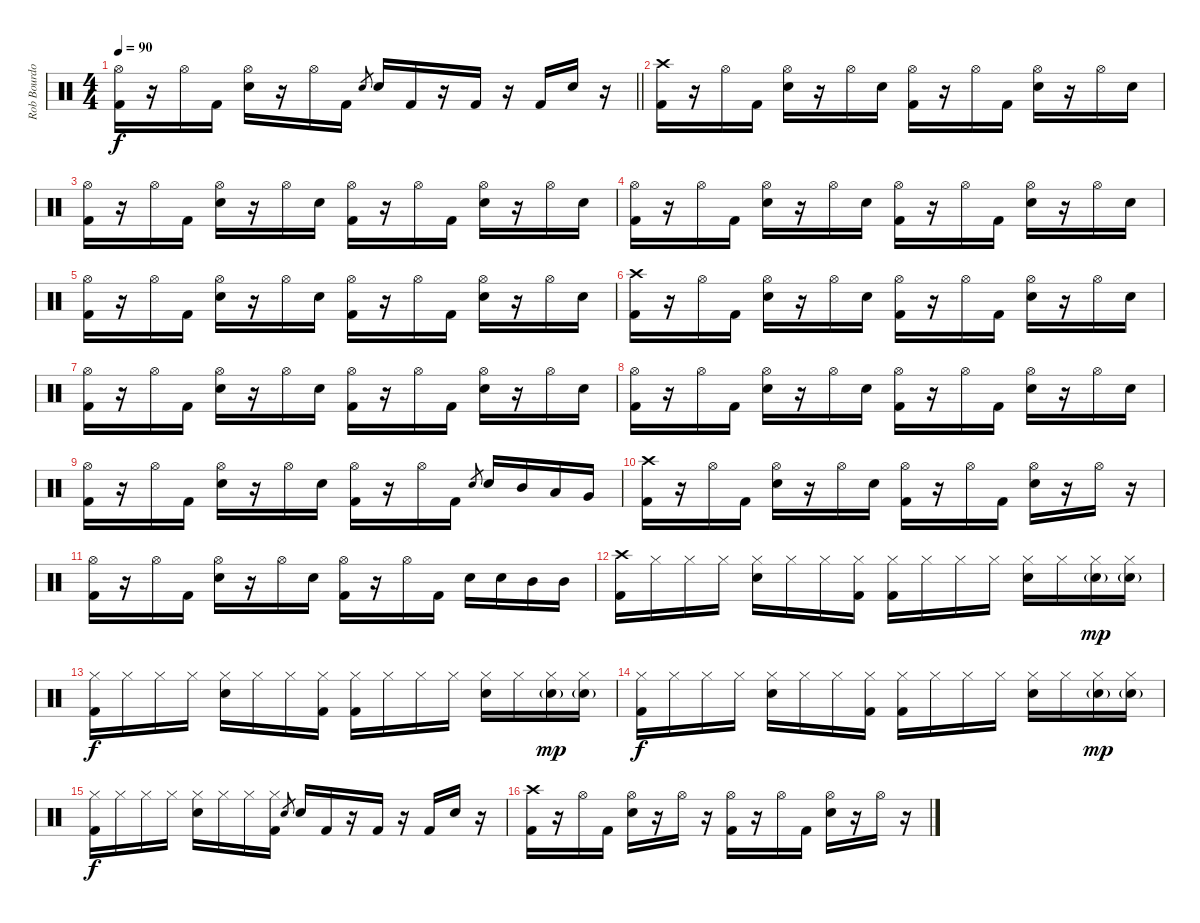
\track ("Rob Bourdon - Drums" "Rob Bourdo") {instrument percussion}
\staff {score}
\articulation defaults
\ts (4 4)
\tempo 90
\clef neutral
\barLineRight lightlight
\ks c
("Hi-Hat (open)" "Kick (hit) 2").16{dy f} r.16 "Hi-Hat (open)".16 "Kick (hit) 2".16 ("Hi-Hat (open)" "Electric Snare (hit)").16 r.16 "Hi-Hat (open)".16 "Kick (hit) 2".16 "Electric Snare (hit)".8{gr} "Electric Snare (hit)".16 "Kick (hit) 2".16 r.16 "Kick (hit) 2".16 r.16 "Kick (hit) 2".16 "Electric Snare (hit)".16 r.16 |
("Crash high (hit)" "Kick (hit) 2").16 r.16 "Hi-Hat (open)".16 "Kick (hit) 2".16 ("Hi-Hat (open)" "Electric Snare (hit)").16 r.16 "Hi-Hat (open)".16 "Electric Snare (hit)".16 ("Hi-Hat (open)" "Kick (hit) 2").16 r.16 "Hi-Hat (open)".16 "Kick (hit) 2".16 ("Hi-Hat (open)" "Electric Snare (hit)").16 r.16 "Hi-Hat (open)".16 "Electric Snare (hit)".16 |
("Hi-Hat (open)" "Kick (hit) 2").16 r.16 "Hi-Hat (open)".16 "Kick (hit) 2".16 ("Hi-Hat (open)" "Electric Snare (hit)").16 r.16 "Hi-Hat (open)".16 "Electric Snare (hit)".16 ("Hi-Hat (open)" "Kick (hit) 2").16 r.16 "Hi-Hat (open)".16 "Kick (hit) 2".16 ("Hi-Hat (open)" "Electric Snare (hit)").16 r.16 "Hi-Hat (open)".16 "Electric Snare (hit)".16 |
("Hi-Hat (open)" "Kick (hit) 2").16 r.16 "Hi-Hat (open)".16 "Kick (hit) 2".16 ("Hi-Hat (open)" "Electric Snare (hit)").16 r.16 "Hi-Hat (open)".16 "Electric Snare (hit)".16 ("Hi-Hat (open)" "Kick (hit) 2").16 r.16 "Hi-Hat (open)".16 "Kick (hit) 2".16 ("Hi-Hat (open)" "Electric Snare (hit)").16 r.16 "Hi-Hat (open)".16 "Electric Snare (hit)".16 |
("Hi-Hat (open)" "Kick (hit) 2").16 r.16 "Hi-Hat (open)".16 "Kick (hit) 2".16 ("Hi-Hat (open)" "Electric Snare (hit)").16 r.16 "Hi-Hat (open)".16 "Electric Snare (hit)".16 ("Hi-Hat (open)" "Kick (hit) 2").16 r.16 "Hi-Hat (open)".16 "Kick (hit) 2".16 ("Hi-Hat (open)" "Electric Snare (hit)").16 r.16 "Hi-Hat (open)".16 "Electric Snare (hit)".16 |
("Crash high (hit)" "Kick (hit) 2").16 r.16 "Hi-Hat (open)".16 "Kick (hit) 2".16 ("Hi-Hat (open)" "Electric Snare (hit)").16 r.16 "Hi-Hat (open)".16 "Electric Snare (hit)".16 ("Hi-Hat (open)" "Kick (hit) 2").16 r.16 "Hi-Hat (open)".16 "Kick (hit) 2".16 ("Hi-Hat (open)" "Electric Snare (hit)").16 r.16 "Hi-Hat (open)".16 "Electric Snare (hit)".16 |
("Hi-Hat (open)" "Kick (hit) 2").16 r.16 "Hi-Hat (open)".16 "Kick (hit) 2".16 ("Hi-Hat (open)" "Electric Snare (hit)").16 r.16 "Hi-Hat (open)".16 "Electric Snare (hit)".16 ("Hi-Hat (open)" "Kick (hit) 2").16 r.16 "Hi-Hat (open)".16 "Kick (hit) 2".16 ("Hi-Hat (open)" "Electric Snare (hit)").16 r.16 "Hi-Hat (open)".16 "Electric Snare (hit)".16 |
("Hi-Hat (open)" "Kick (hit) 2").16 r.16 "Hi-Hat (open)".16 "Kick (hit) 2".16 ("Hi-Hat (open)" "Electric Snare (hit)").16 r.16 "Hi-Hat (open)".16 "Electric Snare (hit)".16 ("Hi-Hat (open)" "Kick (hit) 2").16 r.16 "Hi-Hat (open)".16 "Kick (hit) 2".16 ("Hi-Hat (open)" "Electric Snare (hit)").16 r.16 "Hi-Hat (open)".16 "Electric Snare (hit)".16 |
("Hi-Hat (open)" "Kick (hit) 2").16 r.16 "Hi-Hat (open)".16 "Kick (hit) 2".16 ("Hi-Hat (open)" "Electric Snare (hit)").16 r.16 "Hi-Hat (open)".16 "Electric Snare (hit)".16 ("Hi-Hat (open)" "Kick (hit) 2").16 r.16 "Hi-Hat (open)".16 "Kick (hit) 2".16 "Electric Snare (hit)".8{gr} "Electric Snare (hit)".16 "Mid Tom (hit)".16 "Low Tom (hit)".16 "Very Low Tom (hit)".16 |
("Crash high (hit)" "Kick (hit) 2").16 r.16 "Hi-Hat (open)".16 "Kick (hit) 2".16 ("Hi-Hat (open)" "Electric Snare (hit)").16 r.16 "Hi-Hat (open)".16 "Electric Snare (hit)".16 ("Hi-Hat (open)" "Kick (hit) 2").16 r.16 "Hi-Hat (open)".16 "Kick (hit) 2".16 ("Hi-Hat (open)" "Electric Snare (hit)").16 r.16 "Hi-Hat (open)".16 r.16 |
("Hi-Hat (open)" "Kick (hit) 2").16 r.16 "Hi-Hat (open)".16 "Kick (hit) 2".16 ("Hi-Hat (open)" "Electric Snare (hit)").16 r.16 "Hi-Hat (open)".16 "Electric Snare (hit)".16 ("Hi-Hat (open)" "Kick (hit) 2").16 r.16 "Hi-Hat (open)".16 "Kick (hit) 2".16 "Electric Snare (hit)".16 "Electric Snare (hit)".16 "Mid Tom (hit)".16 "Mid Tom (hit)".16 |
("Crash high (hit)" "Kick (hit) 2").16 "Hi-Hat (closed)".16 "Hi-Hat (closed)".16 "Hi-Hat (closed)".16 ("Hi-Hat (closed)" "Hand Clap (hit)").16 "Hi-Hat (closed)".16 "Hi-Hat (closed)".16 ("Hi-Hat (closed)" "Kick (hit) 2").16 ("Hi-Hat (closed)" "Kick (hit) 2").16 "Hi-Hat (closed)".16 "Hi-Hat (closed)".16 "Hi-Hat (closed)".16 ("Hi-Hat (closed)" "Hand Clap (hit)").16 "Hi-Hat (closed)".16 ("Hi-Hat (closed)" "Hand Clap (hit)"{g}).16{dy mp} ("Hi-Hat (closed)" "Hand Clap (hit)"{g}).16 |
("Hi-Hat (closed)" "Kick (hit) 2").16{dy f} "Hi-Hat (closed)".16 "Hi-Hat (closed)".16 "Hi-Hat (closed)".16 ("Hi-Hat (closed)" "Hand Clap (hit)").16 "Hi-Hat (closed)".16 "Hi-Hat (closed)".16 ("Hi-Hat (closed)" "Kick (hit) 2").16 ("Hi-Hat (closed)" "Kick (hit) 2").16 "Hi-Hat (closed)".16 "Hi-Hat (closed)".16 "Hi-Hat (closed)".16 ("Hi-Hat (closed)" "Hand Clap (hit)").16 "Hi-Hat (closed)".16 ("Hi-Hat (closed)" "Hand Clap (hit)"{g}).16{dy mp} ("Hi-Hat (closed)" "Hand Clap (hit)"{g}).16 |
("Hi-Hat (closed)" "Kick (hit) 2").16{dy f} "Hi-Hat (closed)".16 "Hi-Hat (closed)".16 "Hi-Hat (closed)".16 ("Hi-Hat (closed)" "Hand Clap (hit)").16 "Hi-Hat (closed)".16 "Hi-Hat (closed)".16 ("Hi-Hat (closed)" "Kick (hit) 2").16 ("Hi-Hat (closed)" "Kick (hit) 2").16 "Hi-Hat (closed)".16 "Hi-Hat (closed)".16 "Hi-Hat (closed)".16 ("Hi-Hat (closed)" "Hand Clap (hit)").16 "Hi-Hat (closed)".16 ("Hi-Hat (closed)" "Hand Clap (hit)"{g}).16{dy mp} ("Hi-Hat (closed)" "Hand Clap (hit)"{g}).16 |
("Hi-Hat (closed)" "Kick (hit) 2").16{dy f} "Hi-Hat (closed)".16 "Hi-Hat (closed)".16 "Hi-Hat (closed)".16 ("Hi-Hat (closed)" "Hand Clap (hit)").16 "Hi-Hat (closed)".16 "Hi-Hat (closed)".16 ("Hi-Hat (closed)" "Kick (hit) 2").16 "Electric Snare (hit)".8{gr} "Electric Snare (hit)".16 "Kick (hit) 2".16 r.16 "Kick (hit) 2".16 r.16 "Kick (hit) 2".16 "Electric Snare (hit)".16 r.16 |
("Crash high (hit)" "Kick (hit) 2").16 r.16 "Hi-Hat (open)".16 "Kick (hit) 2".16 ("Hi-Hat (open)" "Electric Snare (hit)").16 r.16 "Hi-Hat (open)".16 r.16 ("Hi-Hat (open)" "Kick (hit) 2").16 r.16 "Hi-Hat (open)".16 "Kick (hit) 2".16 ("Hi-Hat (open)" "Electric Snare (hit)").16 r.16 "Hi-Hat (open)".16 r.16
